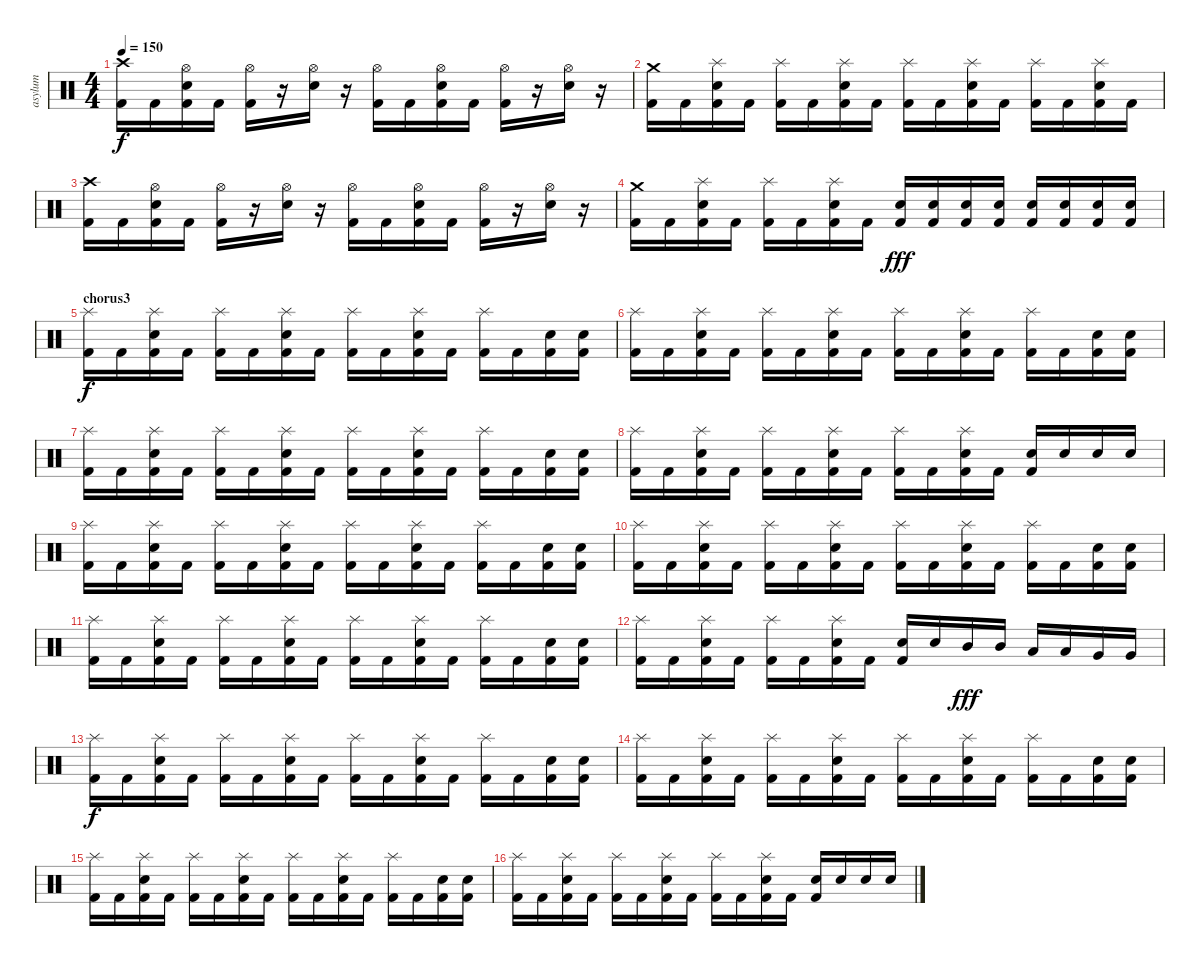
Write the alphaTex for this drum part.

\track ("asylum" "asylum") {instrument percussion}
\staff {score}
\articulation defaults
\ts (4 4)
\tempo 150
\clef neutral
\ks c
("Crash high (hit)" "Kick (hit) 2").16{dy f} "Kick (hit) 2".16 ("Hi-Hat (open)" "Electric Snare (hit)" "Kick (hit) 2").16 "Kick (hit) 2".16 ("Hi-Hat (open)" "Kick (hit) 2").16 r.16 ("Hi-Hat (open)" "Electric Snare (hit)").16 r.16 ("Hi-Hat (open)" "Kick (hit) 2").16 "Kick (hit) 2".16 ("Hi-Hat (open)" "Electric Snare (hit)" "Kick (hit) 2").16 "Kick (hit) 2".16 ("Hi-Hat (open)" "Kick (hit) 2").16 r.16 ("Hi-Hat (open)" "Electric Snare (hit)").16 r.16 |
("Crash medium (hit)" "Kick (hit) 2").16 "Kick (hit) 2".16 ("Splash (hit)" "Electric Snare (hit)" "Kick (hit) 2").16 "Kick (hit) 2".16 ("Splash (hit)" "Kick (hit) 2").16 "Kick (hit) 2".16 ("Splash (hit)" "Electric Snare (hit)" "Kick (hit) 2").16 "Kick (hit) 2".16 ("Splash (hit)" "Kick (hit) 2").16 "Kick (hit) 2".16 ("Splash (hit)" "Electric Snare (hit)" "Kick (hit) 2").16 "Kick (hit) 2".16 ("Splash (hit)" "Kick (hit) 2").16 "Kick (hit) 2".16 ("Splash (hit)" "Electric Snare (hit)" "Kick (hit) 2").16 "Kick (hit) 2".16 |
("Crash high (hit)" "Kick (hit) 2").16 "Kick (hit) 2".16 ("Hi-Hat (open)" "Electric Snare (hit)" "Kick (hit) 2").16 "Kick (hit) 2".16 ("Hi-Hat (open)" "Kick (hit) 2").16 r.16 ("Hi-Hat (open)" "Electric Snare (hit)").16 r.16 ("Hi-Hat (open)" "Kick (hit) 2").16 "Kick (hit) 2".16 ("Hi-Hat (open)" "Electric Snare (hit)" "Kick (hit) 2").16 "Kick (hit) 2".16 ("Hi-Hat (open)" "Kick (hit) 2").16 r.16 ("Hi-Hat (open)" "Electric Snare (hit)").16 r.16 |
("Crash medium (hit)" "Kick (hit) 2").16 "Kick (hit) 2".16 ("Splash (hit)" "Electric Snare (hit)" "Kick (hit) 2").16 "Kick (hit) 2".16 ("Splash (hit)" "Kick (hit) 2").16 "Kick (hit) 2".16 ("Splash (hit)" "Electric Snare (hit)" "Kick (hit) 2").16 "Kick (hit) 2".16 ("Electric Snare (hit)" "Kick (hit) 2").16{dy fff} ("Electric Snare (hit)" "Kick (hit) 2").16 ("Electric Snare (hit)" "Kick (hit) 2").16 ("Electric Snare (hit)" "Kick (hit) 2").16 ("Electric Snare (hit)" "Kick (hit) 2").16 ("Electric Snare (hit)" "Kick (hit) 2").16 ("Electric Snare (hit)" "Kick (hit) 2").16 ("Electric Snare (hit)" "Kick (hit) 2").16 |
\section ("" "chorus3")
("Splash (hit)" "Kick (hit) 2").16{dy f} "Kick (hit) 2".16 ("Splash (hit)" "Electric Snare (hit)" "Kick (hit) 2").16 "Kick (hit) 2".16 ("Splash (hit)" "Kick (hit) 2").16 "Kick (hit) 2".16 ("Splash (hit)" "Electric Snare (hit)" "Kick (hit) 2").16 "Kick (hit) 2".16 ("Splash (hit)" "Kick (hit) 2").16 "Kick (hit) 2".16 ("Splash (hit)" "Electric Snare (hit)" "Kick (hit) 2").16 "Kick (hit) 2".16 ("Splash (hit)" "Kick (hit) 2").16 "Kick (hit) 2".16 ("Electric Snare (hit)" "Kick (hit) 2").16 ("Electric Snare (hit)" "Kick (hit) 2").16 |
("Splash (hit)" "Kick (hit) 2").16 "Kick (hit) 2".16 ("Splash (hit)" "Electric Snare (hit)" "Kick (hit) 2").16 "Kick (hit) 2".16 ("Splash (hit)" "Kick (hit) 2").16 "Kick (hit) 2".16 ("Splash (hit)" "Electric Snare (hit)" "Kick (hit) 2").16 "Kick (hit) 2".16 ("Splash (hit)" "Kick (hit) 2").16 "Kick (hit) 2".16 ("Splash (hit)" "Electric Snare (hit)" "Kick (hit) 2").16 "Kick (hit) 2".16 ("Splash (hit)" "Kick (hit) 2").16 "Kick (hit) 2".16 ("Electric Snare (hit)" "Kick (hit) 2").16 ("Electric Snare (hit)" "Kick (hit) 2").16 |
("Splash (hit)" "Kick (hit) 2").16 "Kick (hit) 2".16 ("Splash (hit)" "Electric Snare (hit)" "Kick (hit) 2").16 "Kick (hit) 2".16 ("Splash (hit)" "Kick (hit) 2").16 "Kick (hit) 2".16 ("Splash (hit)" "Electric Snare (hit)" "Kick (hit) 2").16 "Kick (hit) 2".16 ("Splash (hit)" "Kick (hit) 2").16 "Kick (hit) 2".16 ("Splash (hit)" "Electric Snare (hit)" "Kick (hit) 2").16 "Kick (hit) 2".16 ("Splash (hit)" "Kick (hit) 2").16 "Kick (hit) 2".16 ("Electric Snare (hit)" "Kick (hit) 2").16 ("Electric Snare (hit)" "Kick (hit) 2").16 |
("Splash (hit)" "Kick (hit) 2").16 "Kick (hit) 2".16 ("Splash (hit)" "Electric Snare (hit)" "Kick (hit) 2").16 "Kick (hit) 2".16 ("Splash (hit)" "Kick (hit) 2").16 "Kick (hit) 2".16 ("Splash (hit)" "Electric Snare (hit)" "Kick (hit) 2").16 "Kick (hit) 2".16 ("Splash (hit)" "Kick (hit) 2").16 "Kick (hit) 2".16 ("Splash (hit)" "Electric Snare (hit)" "Kick (hit) 2").16 "Kick (hit) 2".16 ("Electric Snare (hit)" "Kick (hit) 2").16 "Electric Snare (hit)".16 "Electric Snare (hit)".16 "Electric Snare (hit)".16 |
("Splash (hit)" "Kick (hit) 2").16 "Kick (hit) 2".16 ("Splash (hit)" "Electric Snare (hit)" "Kick (hit) 2").16 "Kick (hit) 2".16 ("Splash (hit)" "Kick (hit) 2").16 "Kick (hit) 2".16 ("Splash (hit)" "Electric Snare (hit)" "Kick (hit) 2").16 "Kick (hit) 2".16 ("Splash (hit)" "Kick (hit) 2").16 "Kick (hit) 2".16 ("Splash (hit)" "Electric Snare (hit)" "Kick (hit) 2").16 "Kick (hit) 2".16 ("Splash (hit)" "Kick (hit) 2").16 "Kick (hit) 2".16 ("Electric Snare (hit)" "Kick (hit) 2").16 ("Electric Snare (hit)" "Kick (hit) 2").16 |
("Splash (hit)" "Kick (hit) 2").16 "Kick (hit) 2".16 ("Splash (hit)" "Electric Snare (hit)" "Kick (hit) 2").16 "Kick (hit) 2".16 ("Splash (hit)" "Kick (hit) 2").16 "Kick (hit) 2".16 ("Splash (hit)" "Electric Snare (hit)" "Kick (hit) 2").16 "Kick (hit) 2".16 ("Splash (hit)" "Kick (hit) 2").16 "Kick (hit) 2".16 ("Splash (hit)" "Electric Snare (hit)" "Kick (hit) 2").16 "Kick (hit) 2".16 ("Splash (hit)" "Kick (hit) 2").16 "Kick (hit) 2".16 ("Electric Snare (hit)" "Kick (hit) 2").16 ("Electric Snare (hit)" "Kick (hit) 2").16 |
("Splash (hit)" "Kick (hit) 2").16 "Kick (hit) 2".16 ("Splash (hit)" "Electric Snare (hit)" "Kick (hit) 2").16 "Kick (hit) 2".16 ("Splash (hit)" "Kick (hit) 2").16 "Kick (hit) 2".16 ("Splash (hit)" "Electric Snare (hit)" "Kick (hit) 2").16 "Kick (hit) 2".16 ("Splash (hit)" "Kick (hit) 2").16 "Kick (hit) 2".16 ("Splash (hit)" "Electric Snare (hit)" "Kick (hit) 2").16 "Kick (hit) 2".16 ("Splash (hit)" "Kick (hit) 2").16 "Kick (hit) 2".16 ("Electric Snare (hit)" "Kick (hit) 2").16 ("Electric Snare (hit)" "Kick (hit) 2").16 |
("Splash (hit)" "Kick (hit) 2").16 "Kick (hit) 2".16 ("Splash (hit)" "Electric Snare (hit)" "Kick (hit) 2").16 "Kick (hit) 2".16 ("Splash (hit)" "Kick (hit) 2").16 "Kick (hit) 2".16 ("Splash (hit)" "Electric Snare (hit)" "Kick (hit) 2").16 "Kick (hit) 2".16 ("Electric Snare (hit)" "Kick (hit) 2").16 "Electric Snare (hit)".16 "Mid Tom (hit)".16{dy fff} "Mid Tom (hit)".16 "Low Tom (hit)".16 "Low Tom (hit)".16 "Very Low Tom (hit)".16 "Very Low Tom (hit)".16 |
("Splash (hit)" "Kick (hit) 2").16{dy f} "Kick (hit) 2".16 ("Splash (hit)" "Electric Snare (hit)" "Kick (hit) 2").16 "Kick (hit) 2".16 ("Splash (hit)" "Kick (hit) 2").16 "Kick (hit) 2".16 ("Splash (hit)" "Electric Snare (hit)" "Kick (hit) 2").16 "Kick (hit) 2".16 ("Splash (hit)" "Kick (hit) 2").16 "Kick (hit) 2".16 ("Splash (hit)" "Electric Snare (hit)" "Kick (hit) 2").16 "Kick (hit) 2".16 ("Splash (hit)" "Kick (hit) 2").16 "Kick (hit) 2".16 ("Electric Snare (hit)" "Kick (hit) 2").16 ("Electric Snare (hit)" "Kick (hit) 2").16 |
("Splash (hit)" "Kick (hit) 2").16 "Kick (hit) 2".16 ("Splash (hit)" "Electric Snare (hit)" "Kick (hit) 2").16 "Kick (hit) 2".16 ("Splash (hit)" "Kick (hit) 2").16 "Kick (hit) 2".16 ("Splash (hit)" "Electric Snare (hit)" "Kick (hit) 2").16 "Kick (hit) 2".16 ("Splash (hit)" "Kick (hit) 2").16 "Kick (hit) 2".16 ("Splash (hit)" "Electric Snare (hit)" "Kick (hit) 2").16 "Kick (hit) 2".16 ("Splash (hit)" "Kick (hit) 2").16 "Kick (hit) 2".16 ("Electric Snare (hit)" "Kick (hit) 2").16 ("Electric Snare (hit)" "Kick (hit) 2").16 |
("Splash (hit)" "Kick (hit) 2").16 "Kick (hit) 2".16 ("Splash (hit)" "Electric Snare (hit)" "Kick (hit) 2").16 "Kick (hit) 2".16 ("Splash (hit)" "Kick (hit) 2").16 "Kick (hit) 2".16 ("Splash (hit)" "Electric Snare (hit)" "Kick (hit) 2").16 "Kick (hit) 2".16 ("Splash (hit)" "Kick (hit) 2").16 "Kick (hit) 2".16 ("Splash (hit)" "Electric Snare (hit)" "Kick (hit) 2").16 "Kick (hit) 2".16 ("Splash (hit)" "Kick (hit) 2").16 "Kick (hit) 2".16 ("Electric Snare (hit)" "Kick (hit) 2").16 ("Electric Snare (hit)" "Kick (hit) 2").16 |
("Splash (hit)" "Kick (hit) 2").16 "Kick (hit) 2".16 ("Splash (hit)" "Electric Snare (hit)" "Kick (hit) 2").16 "Kick (hit) 2".16 ("Splash (hit)" "Kick (hit) 2").16 "Kick (hit) 2".16 ("Splash (hit)" "Electric Snare (hit)" "Kick (hit) 2").16 "Kick (hit) 2".16 ("Splash (hit)" "Kick (hit) 2").16 "Kick (hit) 2".16 ("Splash (hit)" "Electric Snare (hit)" "Kick (hit) 2").16 "Kick (hit) 2".16 ("Electric Snare (hit)" "Kick (hit) 2").16 "Electric Snare (hit)".16 "Electric Snare (hit)".16 "Electric Snare (hit)".16
